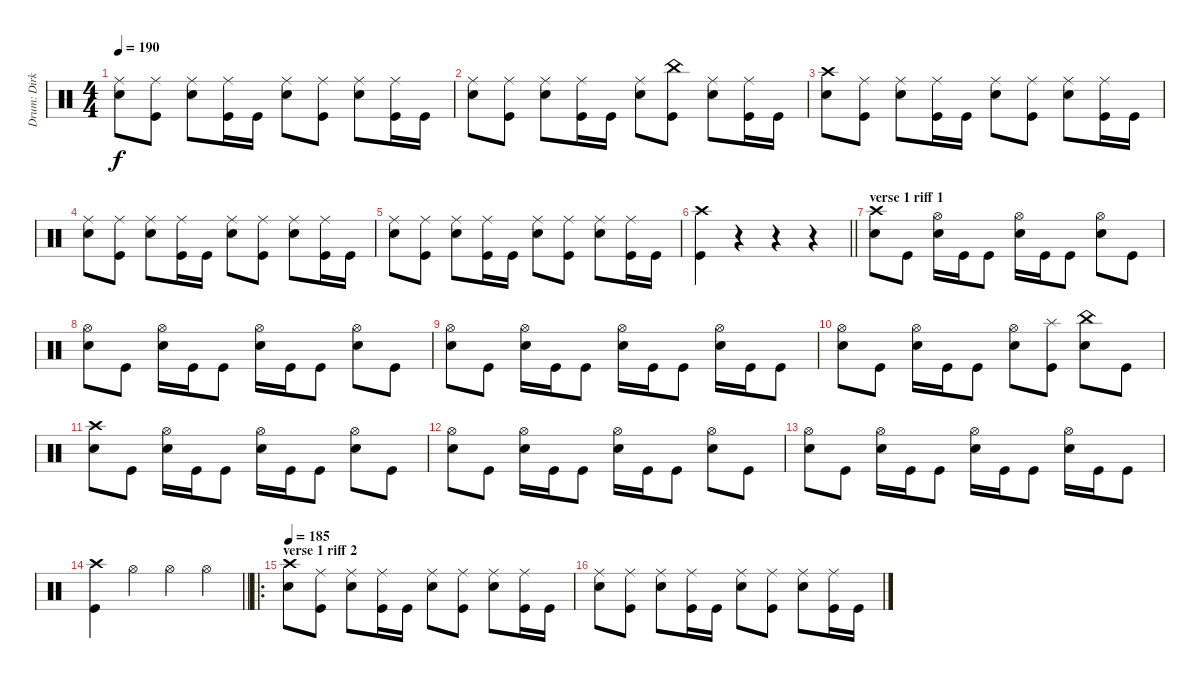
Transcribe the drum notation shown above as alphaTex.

\track ("Drum: Dirk" "Drum: Dirk") {instrument percussion}
\staff {score}
\articulation defaults
\ts (4 4)
\tempo 190
\clef neutral
\ks c
("Ride (middle)" "Electric Snare (hit)").8{dy f} ("Ride (middle)" "Kick (hit)").8 ("Ride (middle)" "Electric Snare (hit)").8 ("Ride (middle)" "Kick (hit)").16 "Kick (hit)".16 ("Ride (middle)" "Electric Snare (hit)").8 ("Ride (middle)" "Kick (hit)").8 ("Ride (middle)" "Electric Snare (hit)").8 ("Ride (middle)" "Kick (hit)").16 "Kick (hit)".16 |
("Ride (middle)" "Electric Snare (hit)").8 ("Ride (middle)" "Kick (hit)").8 ("Ride (middle)" "Electric Snare (hit)").8 ("Ride (middle)" "Kick (hit)").16 "Kick (hit)".16 ("Ride (middle)" "Electric Snare (hit)").8 ("China (hit)" "Kick (hit)").8 ("Ride (middle)" "Electric Snare (hit)").8 ("Ride (middle)" "Kick (hit)").16 "Kick (hit)".16 |
("Crash high (hit)" "Electric Snare (hit)").8 ("Ride (middle)" "Kick (hit)").8 ("Ride (middle)" "Electric Snare (hit)").8 ("Ride (middle)" "Kick (hit)").16 "Kick (hit)".16 ("Ride (middle)" "Electric Snare (hit)").8 ("Ride (middle)" "Kick (hit)").8 ("Ride (middle)" "Electric Snare (hit)").8 ("Ride (middle)" "Kick (hit)").16 "Kick (hit)".16 |
("Ride (middle)" "Electric Snare (hit)").8 ("Ride (middle)" "Kick (hit)").8 ("Ride (middle)" "Electric Snare (hit)").8 ("Ride (middle)" "Kick (hit)").16 "Kick (hit)".16 ("Ride (middle)" "Electric Snare (hit)").8 ("Ride (middle)" "Kick (hit)").8 ("Ride (middle)" "Electric Snare (hit)").8 ("Ride (middle)" "Kick (hit)").16 "Kick (hit)".16 |
("Ride (middle)" "Electric Snare (hit)").8 ("Ride (middle)" "Kick (hit)").8 ("Ride (middle)" "Electric Snare (hit)").8 ("Ride (middle)" "Kick (hit)").16 "Kick (hit)".16 ("Ride (middle)" "Electric Snare (hit)").8 ("Ride (middle)" "Kick (hit)").8 ("Ride (middle)" "Electric Snare (hit)").8 ("Ride (middle)" "Kick (hit)").16 "Kick (hit)".16 |
\barLineRight lightlight
("Crash high (hit)" "Kick (hit)").4 r.4{volume 0} r.4 r.4 |
\section ("" "verse 1 riff 1")
("Crash high (hit)" "Electric Snare (hit)").8{volume 12} "Kick (hit)".8 ("Hi-Hat (open)" "Electric Snare (hit)").16 "Kick (hit)".16 "Kick (hit)".8 ("Hi-Hat (open)" "Electric Snare (hit)").16 "Kick (hit)".16 "Kick (hit)".8 ("Hi-Hat (open)" "Electric Snare (hit)").8 "Kick (hit)".8 |
("Hi-Hat (open)" "Electric Snare (hit)").8 "Kick (hit)".8 ("Hi-Hat (open)" "Electric Snare (hit)").16 "Kick (hit)".16 "Kick (hit)".8 ("Hi-Hat (open)" "Electric Snare (hit)").16 "Kick (hit)".16 "Kick (hit)".8 ("Hi-Hat (open)" "Electric Snare (hit)").8 "Kick (hit)".8 |
("Hi-Hat (open)" "Electric Snare (hit)").8 "Kick (hit)".8 ("Hi-Hat (open)" "Electric Snare (hit)").16 "Kick (hit)".16 "Kick (hit)".8 ("Hi-Hat (open)" "Electric Snare (hit)").16 "Kick (hit)".16 "Kick (hit)".8 ("Hi-Hat (open)" "Electric Snare (hit)").16 "Kick (hit)".16 "Kick (hit)".8 |
("Hi-Hat (open)" "Electric Snare (hit)").8 "Kick (hit)".8 ("Hi-Hat (open)" "Electric Snare (hit)").16 "Kick (hit)".16 "Kick (hit)".8 ("Hi-Hat (open)" "Electric Snare (hit)").8 ("Splash (hit)" "Kick (hit)").8 ("China (hit)" "Electric Snare (hit)").8 "Kick (hit)".8 |
("Crash high (hit)" "Electric Snare (hit)").8 "Kick (hit)".8 ("Hi-Hat (open)" "Electric Snare (hit)").16 "Kick (hit)".16 "Kick (hit)".8 ("Hi-Hat (open)" "Electric Snare (hit)").16 "Kick (hit)".16 "Kick (hit)".8 ("Hi-Hat (open)" "Electric Snare (hit)").8 "Kick (hit)".8 |
("Hi-Hat (open)" "Electric Snare (hit)").8 "Kick (hit)".8 ("Hi-Hat (open)" "Electric Snare (hit)").16 "Kick (hit)".16 "Kick (hit)".8 ("Hi-Hat (open)" "Electric Snare (hit)").16 "Kick (hit)".16 "Kick (hit)".8 ("Hi-Hat (open)" "Electric Snare (hit)").8 "Kick (hit)".8 |
("Hi-Hat (open)" "Electric Snare (hit)").8 "Kick (hit)".8 ("Hi-Hat (open)" "Electric Snare (hit)").16 "Kick (hit)".16 "Kick (hit)".8 ("Hi-Hat (open)" "Electric Snare (hit)").16 "Kick (hit)".16 "Kick (hit)".8 ("Hi-Hat (open)" "Electric Snare (hit)").16 "Kick (hit)".16 "Kick (hit)".8 |
\barLineRight lightlight
("Crash high (hit)" "Kick (hit)").4 "Hi-Hat (open)".4 "Hi-Hat (open)".4 "Hi-Hat (open)".4 |
\ro
\section ("" "verse 1 riff 2")
\tempo 185
("Crash high (hit)" "Electric Snare (hit)").8 ("Ride (middle)" "Kick (hit)").8 ("Ride (middle)" "Electric Snare (hit)").8 ("Ride (middle)" "Kick (hit)").16 "Kick (hit)".16 ("Ride (middle)" "Electric Snare (hit)").8 ("Ride (middle)" "Kick (hit)").8 ("Ride (middle)" "Electric Snare (hit)").8 ("Ride (middle)" "Kick (hit)").16 "Kick (hit)".16 |
("Ride (middle)" "Electric Snare (hit)").8 ("Ride (middle)" "Kick (hit)").8 ("Ride (middle)" "Electric Snare (hit)").8 ("Ride (middle)" "Kick (hit)").16 "Kick (hit)".16 ("Ride (middle)" "Electric Snare (hit)").8 ("Ride (middle)" "Kick (hit)").8 ("Ride (middle)" "Electric Snare (hit)").8 ("Ride (middle)" "Kick (hit)").16 "Kick (hit)".16
